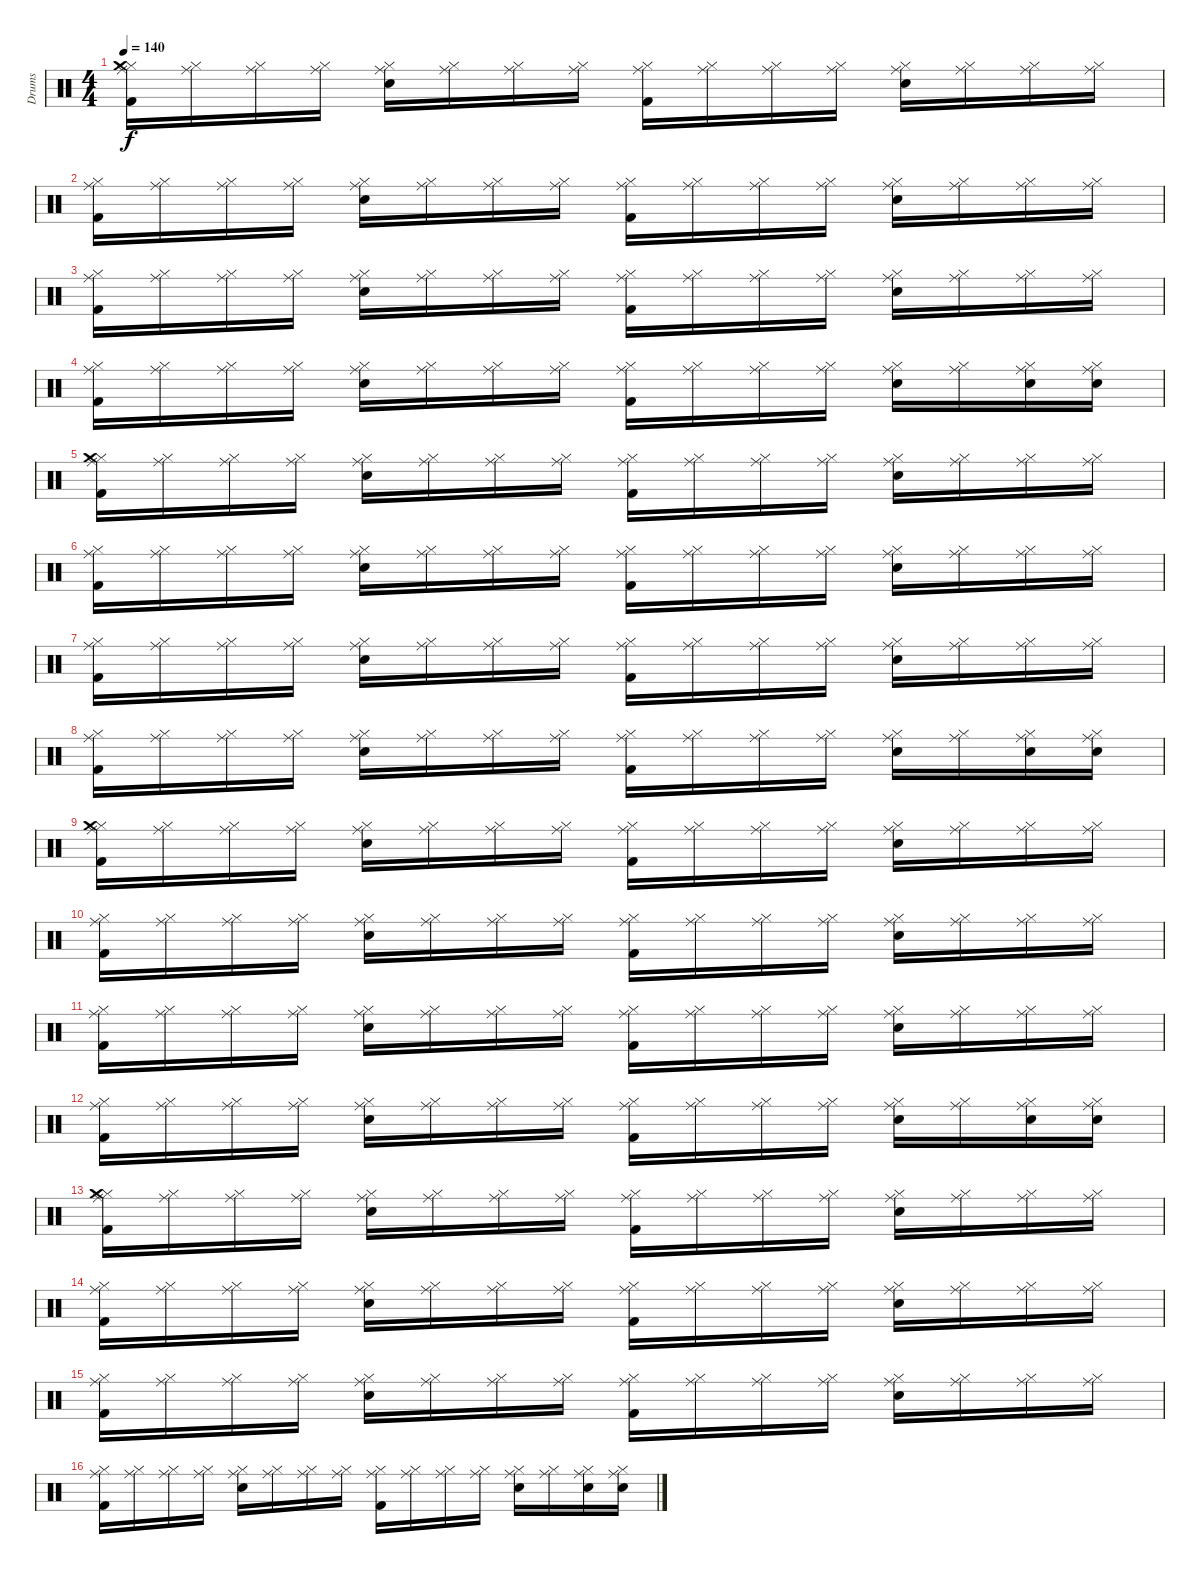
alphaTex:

\track ("Drums" "Drums") {instrument percussion}
\staff {score}
\articulation defaults
\ts (4 4)
\tempo 140
\clef neutral
\ks c
("Hi-Hat (closed)" "Crash medium (hit)" "Ride (middle)" "Kick (hit) 2").16{dy f} ("Hi-Hat (closed)" "Ride (middle)").16 ("Hi-Hat (closed)" "Ride (middle)").16 ("Hi-Hat (closed)" "Ride (middle)").16 ("Hi-Hat (closed)" "Ride (middle)" "Snare (hit) 2").16 ("Hi-Hat (closed)" "Ride (middle)").16 ("Hi-Hat (closed)" "Ride (middle)").16 ("Hi-Hat (closed)" "Ride (middle)").16 ("Hi-Hat (closed)" "Ride (middle)" "Kick (hit) 2").16 ("Hi-Hat (closed)" "Ride (middle)").16 ("Hi-Hat (closed)" "Ride (middle)").16 ("Hi-Hat (closed)" "Ride (middle)").16 ("Hi-Hat (closed)" "Ride (middle)" "Snare (hit) 2").16 ("Hi-Hat (closed)" "Ride (middle)").16 ("Hi-Hat (closed)" "Ride (middle)").16 ("Hi-Hat (closed)" "Ride (middle)").16 |
("Hi-Hat (closed)" "Ride (middle)" "Kick (hit) 2").16 ("Hi-Hat (closed)" "Ride (middle)").16 ("Hi-Hat (closed)" "Ride (middle)").16 ("Hi-Hat (closed)" "Ride (middle)").16 ("Hi-Hat (closed)" "Ride (middle)" "Snare (hit) 2").16 ("Hi-Hat (closed)" "Ride (middle)").16 ("Hi-Hat (closed)" "Ride (middle)").16 ("Hi-Hat (closed)" "Ride (middle)").16 ("Hi-Hat (closed)" "Ride (middle)" "Kick (hit) 2").16 ("Hi-Hat (closed)" "Ride (middle)").16 ("Hi-Hat (closed)" "Ride (middle)").16 ("Hi-Hat (closed)" "Ride (middle)").16 ("Hi-Hat (closed)" "Ride (middle)" "Snare (hit) 2").16 ("Hi-Hat (closed)" "Ride (middle)").16 ("Hi-Hat (closed)" "Ride (middle)").16 ("Hi-Hat (closed)" "Ride (middle)").16 |
("Hi-Hat (closed)" "Ride (middle)" "Kick (hit) 2").16 ("Hi-Hat (closed)" "Ride (middle)").16 ("Hi-Hat (closed)" "Ride (middle)").16 ("Hi-Hat (closed)" "Ride (middle)").16 ("Hi-Hat (closed)" "Ride (middle)" "Snare (hit) 2").16 ("Hi-Hat (closed)" "Ride (middle)").16 ("Hi-Hat (closed)" "Ride (middle)").16 ("Hi-Hat (closed)" "Ride (middle)").16 ("Hi-Hat (closed)" "Ride (middle)" "Kick (hit) 2").16 ("Hi-Hat (closed)" "Ride (middle)").16 ("Hi-Hat (closed)" "Ride (middle)").16 ("Hi-Hat (closed)" "Ride (middle)").16 ("Hi-Hat (closed)" "Ride (middle)" "Snare (hit) 2").16 ("Hi-Hat (closed)" "Ride (middle)").16 ("Hi-Hat (closed)" "Ride (middle)").16 ("Hi-Hat (closed)" "Ride (middle)").16 |
("Hi-Hat (closed)" "Ride (middle)" "Kick (hit) 2").16 ("Hi-Hat (closed)" "Ride (middle)").16 ("Hi-Hat (closed)" "Ride (middle)").16 ("Hi-Hat (closed)" "Ride (middle)").16 ("Hi-Hat (closed)" "Ride (middle)" "Snare (hit) 2").16 ("Hi-Hat (closed)" "Ride (middle)").16 ("Hi-Hat (closed)" "Ride (middle)").16 ("Hi-Hat (closed)" "Ride (middle)").16 ("Hi-Hat (closed)" "Ride (middle)" "Kick (hit) 2").16 ("Hi-Hat (closed)" "Ride (middle)").16 ("Hi-Hat (closed)" "Ride (middle)").16 ("Hi-Hat (closed)" "Ride (middle)").16 ("Hi-Hat (closed)" "Ride (middle)" "Snare (hit) 2").16 ("Hi-Hat (closed)" "Ride (middle)").16 ("Hi-Hat (closed)" "Ride (middle)" "Snare (hit) 2").16 ("Hi-Hat (closed)" "Ride (middle)" "Snare (hit) 2").16 |
("Hi-Hat (closed)" "Crash medium (hit)" "Ride (middle)" "Kick (hit) 2").16 ("Hi-Hat (closed)" "Ride (middle)").16 ("Hi-Hat (closed)" "Ride (middle)").16 ("Hi-Hat (closed)" "Ride (middle)").16 ("Hi-Hat (closed)" "Ride (middle)" "Snare (hit) 2").16 ("Hi-Hat (closed)" "Ride (middle)").16 ("Hi-Hat (closed)" "Ride (middle)").16 ("Hi-Hat (closed)" "Ride (middle)").16 ("Hi-Hat (closed)" "Ride (middle)" "Kick (hit) 2").16 ("Hi-Hat (closed)" "Ride (middle)").16 ("Hi-Hat (closed)" "Ride (middle)").16 ("Hi-Hat (closed)" "Ride (middle)").16 ("Hi-Hat (closed)" "Ride (middle)" "Snare (hit) 2").16 ("Hi-Hat (closed)" "Ride (middle)").16 ("Hi-Hat (closed)" "Ride (middle)").16 ("Hi-Hat (closed)" "Ride (middle)").16 |
("Hi-Hat (closed)" "Ride (middle)" "Kick (hit) 2").16 ("Hi-Hat (closed)" "Ride (middle)").16 ("Hi-Hat (closed)" "Ride (middle)").16 ("Hi-Hat (closed)" "Ride (middle)").16 ("Hi-Hat (closed)" "Ride (middle)" "Snare (hit) 2").16 ("Hi-Hat (closed)" "Ride (middle)").16 ("Hi-Hat (closed)" "Ride (middle)").16 ("Hi-Hat (closed)" "Ride (middle)").16 ("Hi-Hat (closed)" "Ride (middle)" "Kick (hit) 2").16 ("Hi-Hat (closed)" "Ride (middle)").16 ("Hi-Hat (closed)" "Ride (middle)").16 ("Hi-Hat (closed)" "Ride (middle)").16 ("Hi-Hat (closed)" "Ride (middle)" "Snare (hit) 2").16 ("Hi-Hat (closed)" "Ride (middle)").16 ("Hi-Hat (closed)" "Ride (middle)").16 ("Hi-Hat (closed)" "Ride (middle)").16 |
("Hi-Hat (closed)" "Ride (middle)" "Kick (hit) 2").16 ("Hi-Hat (closed)" "Ride (middle)").16 ("Hi-Hat (closed)" "Ride (middle)").16 ("Hi-Hat (closed)" "Ride (middle)").16 ("Hi-Hat (closed)" "Ride (middle)" "Snare (hit) 2").16 ("Hi-Hat (closed)" "Ride (middle)").16 ("Hi-Hat (closed)" "Ride (middle)").16 ("Hi-Hat (closed)" "Ride (middle)").16 ("Hi-Hat (closed)" "Ride (middle)" "Kick (hit) 2").16 ("Hi-Hat (closed)" "Ride (middle)").16 ("Hi-Hat (closed)" "Ride (middle)").16 ("Hi-Hat (closed)" "Ride (middle)").16 ("Hi-Hat (closed)" "Ride (middle)" "Snare (hit) 2").16 ("Hi-Hat (closed)" "Ride (middle)").16 ("Hi-Hat (closed)" "Ride (middle)").16 ("Hi-Hat (closed)" "Ride (middle)").16 |
("Hi-Hat (closed)" "Ride (middle)" "Kick (hit) 2").16 ("Hi-Hat (closed)" "Ride (middle)").16 ("Hi-Hat (closed)" "Ride (middle)").16 ("Hi-Hat (closed)" "Ride (middle)").16 ("Hi-Hat (closed)" "Ride (middle)" "Snare (hit) 2").16 ("Hi-Hat (closed)" "Ride (middle)").16 ("Hi-Hat (closed)" "Ride (middle)").16 ("Hi-Hat (closed)" "Ride (middle)").16 ("Hi-Hat (closed)" "Ride (middle)" "Kick (hit) 2").16 ("Hi-Hat (closed)" "Ride (middle)").16 ("Hi-Hat (closed)" "Ride (middle)").16 ("Hi-Hat (closed)" "Ride (middle)").16 ("Hi-Hat (closed)" "Ride (middle)" "Snare (hit) 2").16 ("Hi-Hat (closed)" "Ride (middle)").16 ("Hi-Hat (closed)" "Ride (middle)" "Snare (hit) 2").16 ("Hi-Hat (closed)" "Ride (middle)" "Snare (hit) 2").16 |
("Hi-Hat (closed)" "Crash medium (hit)" "Ride (middle)" "Kick (hit) 2").16 ("Hi-Hat (closed)" "Ride (middle)").16 ("Hi-Hat (closed)" "Ride (middle)").16 ("Hi-Hat (closed)" "Ride (middle)").16 ("Hi-Hat (closed)" "Ride (middle)" "Snare (hit) 2").16 ("Hi-Hat (closed)" "Ride (middle)").16 ("Hi-Hat (closed)" "Ride (middle)").16 ("Hi-Hat (closed)" "Ride (middle)").16 ("Hi-Hat (closed)" "Ride (middle)" "Kick (hit) 2").16 ("Hi-Hat (closed)" "Ride (middle)").16 ("Hi-Hat (closed)" "Ride (middle)").16 ("Hi-Hat (closed)" "Ride (middle)").16 ("Hi-Hat (closed)" "Ride (middle)" "Snare (hit) 2").16 ("Hi-Hat (closed)" "Ride (middle)").16 ("Hi-Hat (closed)" "Ride (middle)").16 ("Hi-Hat (closed)" "Ride (middle)").16 |
("Hi-Hat (closed)" "Ride (middle)" "Kick (hit) 2").16 ("Hi-Hat (closed)" "Ride (middle)").16 ("Hi-Hat (closed)" "Ride (middle)").16 ("Hi-Hat (closed)" "Ride (middle)").16 ("Hi-Hat (closed)" "Ride (middle)" "Snare (hit) 2").16 ("Hi-Hat (closed)" "Ride (middle)").16 ("Hi-Hat (closed)" "Ride (middle)").16 ("Hi-Hat (closed)" "Ride (middle)").16 ("Hi-Hat (closed)" "Ride (middle)" "Kick (hit) 2").16 ("Hi-Hat (closed)" "Ride (middle)").16 ("Hi-Hat (closed)" "Ride (middle)").16 ("Hi-Hat (closed)" "Ride (middle)").16 ("Hi-Hat (closed)" "Ride (middle)" "Snare (hit) 2").16 ("Hi-Hat (closed)" "Ride (middle)").16 ("Hi-Hat (closed)" "Ride (middle)").16 ("Hi-Hat (closed)" "Ride (middle)").16 |
("Hi-Hat (closed)" "Ride (middle)" "Kick (hit) 2").16 ("Hi-Hat (closed)" "Ride (middle)").16 ("Hi-Hat (closed)" "Ride (middle)").16 ("Hi-Hat (closed)" "Ride (middle)").16 ("Hi-Hat (closed)" "Ride (middle)" "Snare (hit) 2").16 ("Hi-Hat (closed)" "Ride (middle)").16 ("Hi-Hat (closed)" "Ride (middle)").16 ("Hi-Hat (closed)" "Ride (middle)").16 ("Hi-Hat (closed)" "Ride (middle)" "Kick (hit) 2").16 ("Hi-Hat (closed)" "Ride (middle)").16 ("Hi-Hat (closed)" "Ride (middle)").16 ("Hi-Hat (closed)" "Ride (middle)").16 ("Hi-Hat (closed)" "Ride (middle)" "Snare (hit) 2").16 ("Hi-Hat (closed)" "Ride (middle)").16 ("Hi-Hat (closed)" "Ride (middle)").16 ("Hi-Hat (closed)" "Ride (middle)").16 |
("Hi-Hat (closed)" "Ride (middle)" "Kick (hit) 2").16 ("Hi-Hat (closed)" "Ride (middle)").16 ("Hi-Hat (closed)" "Ride (middle)").16 ("Hi-Hat (closed)" "Ride (middle)").16 ("Hi-Hat (closed)" "Ride (middle)" "Snare (hit) 2").16 ("Hi-Hat (closed)" "Ride (middle)").16 ("Hi-Hat (closed)" "Ride (middle)").16 ("Hi-Hat (closed)" "Ride (middle)").16 ("Hi-Hat (closed)" "Ride (middle)" "Kick (hit) 2").16 ("Hi-Hat (closed)" "Ride (middle)").16 ("Hi-Hat (closed)" "Ride (middle)").16 ("Hi-Hat (closed)" "Ride (middle)").16 ("Hi-Hat (closed)" "Ride (middle)" "Snare (hit) 2").16 ("Hi-Hat (closed)" "Ride (middle)").16 ("Hi-Hat (closed)" "Ride (middle)" "Snare (hit) 2").16 ("Hi-Hat (closed)" "Ride (middle)" "Snare (hit) 2").16 |
("Hi-Hat (closed)" "Crash medium (hit)" "Ride (middle)" "Kick (hit) 2").16 ("Hi-Hat (closed)" "Ride (middle)").16 ("Hi-Hat (closed)" "Ride (middle)").16 ("Hi-Hat (closed)" "Ride (middle)").16 ("Hi-Hat (closed)" "Ride (middle)" "Snare (hit) 2").16 ("Hi-Hat (closed)" "Ride (middle)").16 ("Hi-Hat (closed)" "Ride (middle)").16 ("Hi-Hat (closed)" "Ride (middle)").16 ("Hi-Hat (closed)" "Ride (middle)" "Kick (hit) 2").16 ("Hi-Hat (closed)" "Ride (middle)").16 ("Hi-Hat (closed)" "Ride (middle)").16 ("Hi-Hat (closed)" "Ride (middle)").16 ("Hi-Hat (closed)" "Ride (middle)" "Snare (hit) 2").16 ("Hi-Hat (closed)" "Ride (middle)").16 ("Hi-Hat (closed)" "Ride (middle)").16 ("Hi-Hat (closed)" "Ride (middle)").16 |
("Hi-Hat (closed)" "Ride (middle)" "Kick (hit) 2").16 ("Hi-Hat (closed)" "Ride (middle)").16 ("Hi-Hat (closed)" "Ride (middle)").16 ("Hi-Hat (closed)" "Ride (middle)").16 ("Hi-Hat (closed)" "Ride (middle)" "Snare (hit) 2").16 ("Hi-Hat (closed)" "Ride (middle)").16 ("Hi-Hat (closed)" "Ride (middle)").16 ("Hi-Hat (closed)" "Ride (middle)").16 ("Hi-Hat (closed)" "Ride (middle)" "Kick (hit) 2").16 ("Hi-Hat (closed)" "Ride (middle)").16 ("Hi-Hat (closed)" "Ride (middle)").16 ("Hi-Hat (closed)" "Ride (middle)").16 ("Hi-Hat (closed)" "Ride (middle)" "Snare (hit) 2").16 ("Hi-Hat (closed)" "Ride (middle)").16 ("Hi-Hat (closed)" "Ride (middle)").16 ("Hi-Hat (closed)" "Ride (middle)").16 |
("Hi-Hat (closed)" "Ride (middle)" "Kick (hit) 2").16 ("Hi-Hat (closed)" "Ride (middle)").16 ("Hi-Hat (closed)" "Ride (middle)").16 ("Hi-Hat (closed)" "Ride (middle)").16 ("Hi-Hat (closed)" "Ride (middle)" "Snare (hit) 2").16 ("Hi-Hat (closed)" "Ride (middle)").16 ("Hi-Hat (closed)" "Ride (middle)").16 ("Hi-Hat (closed)" "Ride (middle)").16 ("Hi-Hat (closed)" "Ride (middle)" "Kick (hit) 2").16 ("Hi-Hat (closed)" "Ride (middle)").16 ("Hi-Hat (closed)" "Ride (middle)").16 ("Hi-Hat (closed)" "Ride (middle)").16 ("Hi-Hat (closed)" "Ride (middle)" "Snare (hit) 2").16 ("Hi-Hat (closed)" "Ride (middle)").16 ("Hi-Hat (closed)" "Ride (middle)").16 ("Hi-Hat (closed)" "Ride (middle)").16 |
("Hi-Hat (closed)" "Ride (middle)" "Kick (hit) 2").16 ("Hi-Hat (closed)" "Ride (middle)").16 ("Hi-Hat (closed)" "Ride (middle)").16 ("Hi-Hat (closed)" "Ride (middle)").16 ("Hi-Hat (closed)" "Ride (middle)" "Snare (hit) 2").16 ("Hi-Hat (closed)" "Ride (middle)").16 ("Hi-Hat (closed)" "Ride (middle)").16 ("Hi-Hat (closed)" "Ride (middle)").16 ("Hi-Hat (closed)" "Ride (middle)" "Kick (hit) 2").16 ("Hi-Hat (closed)" "Ride (middle)").16 ("Hi-Hat (closed)" "Ride (middle)").16 ("Hi-Hat (closed)" "Ride (middle)").16 ("Hi-Hat (closed)" "Ride (middle)" "Snare (hit) 2").16 ("Hi-Hat (closed)" "Ride (middle)").16 ("Hi-Hat (closed)" "Ride (middle)" "Snare (hit) 2").16 ("Hi-Hat (closed)" "Ride (middle)" "Snare (hit) 2").16
